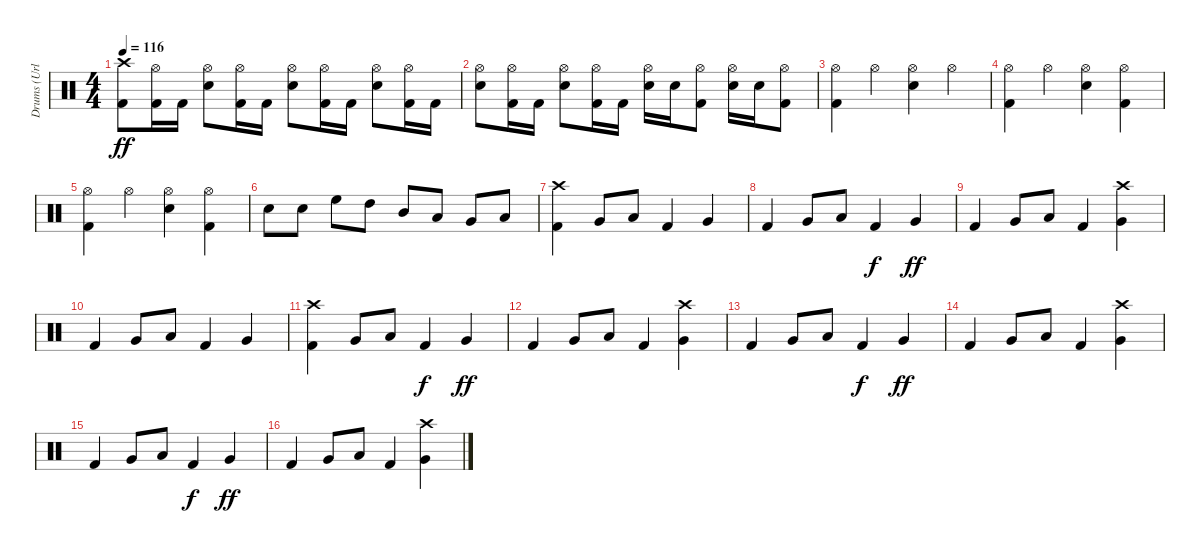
\track ("Drums (Urlich)" "Drums (Url") {instrument percussion}
\staff {score}
\articulation defaults
\ts (4 4)
\tempo 116
\clef neutral
\ks c
("Kick (hit) 2" "Crash high (hit)").8{dy ff} ("Kick (hit) 2" "Hi-Hat (open)").16 "Kick (hit) 2".16 ("Snare (hit) 2" "Hi-Hat (open)").8 ("Kick (hit) 2" "Hi-Hat (open)").16 "Kick (hit) 2".16 ("Snare (hit) 2" "Hi-Hat (open)").8 ("Kick (hit) 2" "Hi-Hat (open)").16 "Kick (hit) 2".16 ("Snare (hit) 2" "Hi-Hat (open)").8 ("Kick (hit) 2" "Hi-Hat (open)").16 "Kick (hit) 2".16 |
("Snare (hit) 2" "Hi-Hat (open)").8 ("Kick (hit) 2" "Hi-Hat (open)").16 "Kick (hit) 2".16 ("Snare (hit) 2" "Hi-Hat (open)").8 ("Kick (hit) 2" "Hi-Hat (open)").16 "Kick (hit) 2".16 ("Snare (hit) 2" "Hi-Hat (open)").16 "Snare (hit) 2".16 ("Kick (hit) 2" "Hi-Hat (open)").8 ("Snare (hit) 2" "Hi-Hat (open)").16 "Snare (hit) 2".16 ("Kick (hit) 2" "Hi-Hat (open)").8 |
("Kick (hit) 2" "Hi-Hat (open)").4 "Hi-Hat (open)".4 ("Snare (hit) 2" "Hi-Hat (open)").4 "Hi-Hat (open)".4 |
("Kick (hit) 2" "Hi-Hat (open)").4 "Hi-Hat (open)".4 ("Snare (hit) 2" "Hi-Hat (open)").4 ("Kick (hit) 2" "Hi-Hat (open)").4 |
("Kick (hit) 2" "Hi-Hat (open)").4 "Hi-Hat (open)".4 ("Snare (hit) 2" "Hi-Hat (open)").4 ("Kick (hit) 2" "Hi-Hat (open)").4 |
"Snare (hit) 2".8 "Snare (hit) 2".8 "High Floor Tom (hit)".8 "High Tom (hit)".8 "Mid Tom (hit)".8 "Low Tom (hit)".8 "Very Low Tom (hit)".8 "Low Floor Tom (hit)".8 |
("Kick (hit) 2" "Crash high (hit)").4 "Very Low Tom (hit)".8 "Low Floor Tom (hit)".8 "Kick (hit) 2".4 "Very Low Tom (hit)".4 |
"Kick (hit) 2".4 "Very Low Tom (hit)".8 "Low Floor Tom (hit)".8 "Kick (hit) 2".4{dy f} "Very Low Tom (hit)".4{dy ff} |
"Kick (hit) 2".4 "Very Low Tom (hit)".8 "Low Floor Tom (hit)".8 "Kick (hit) 2".4 ("Very Low Tom (hit)" "Crash high (hit)").4 |
"Kick (hit) 2".4 "Very Low Tom (hit)".8 "Low Floor Tom (hit)".8 "Kick (hit) 2".4 "Very Low Tom (hit)".4 |
("Kick (hit) 2" "Crash high (hit)").4{volume 12} "Very Low Tom (hit)".8 "Low Floor Tom (hit)".8 "Kick (hit) 2".4{dy f} "Very Low Tom (hit)".4{dy ff} |
"Kick (hit) 2".4 "Very Low Tom (hit)".8 "Low Floor Tom (hit)".8 "Kick (hit) 2".4 ("Very Low Tom (hit)" "Crash high (hit)").4 |
"Kick (hit) 2".4 "Very Low Tom (hit)".8 "Low Floor Tom (hit)".8 "Kick (hit) 2".4{dy f} "Very Low Tom (hit)".4{dy ff} |
"Kick (hit) 2".4 "Very Low Tom (hit)".8 "Low Floor Tom (hit)".8 "Kick (hit) 2".4 ("Very Low Tom (hit)" "Crash high (hit)").4 |
"Kick (hit) 2".4 "Very Low Tom (hit)".8 "Low Floor Tom (hit)".8 "Kick (hit) 2".4{dy f} "Very Low Tom (hit)".4{dy ff} |
"Kick (hit) 2".4 "Very Low Tom (hit)".8 "Low Floor Tom (hit)".8 "Kick (hit) 2".4 ("Very Low Tom (hit)" "Crash high (hit)").4
